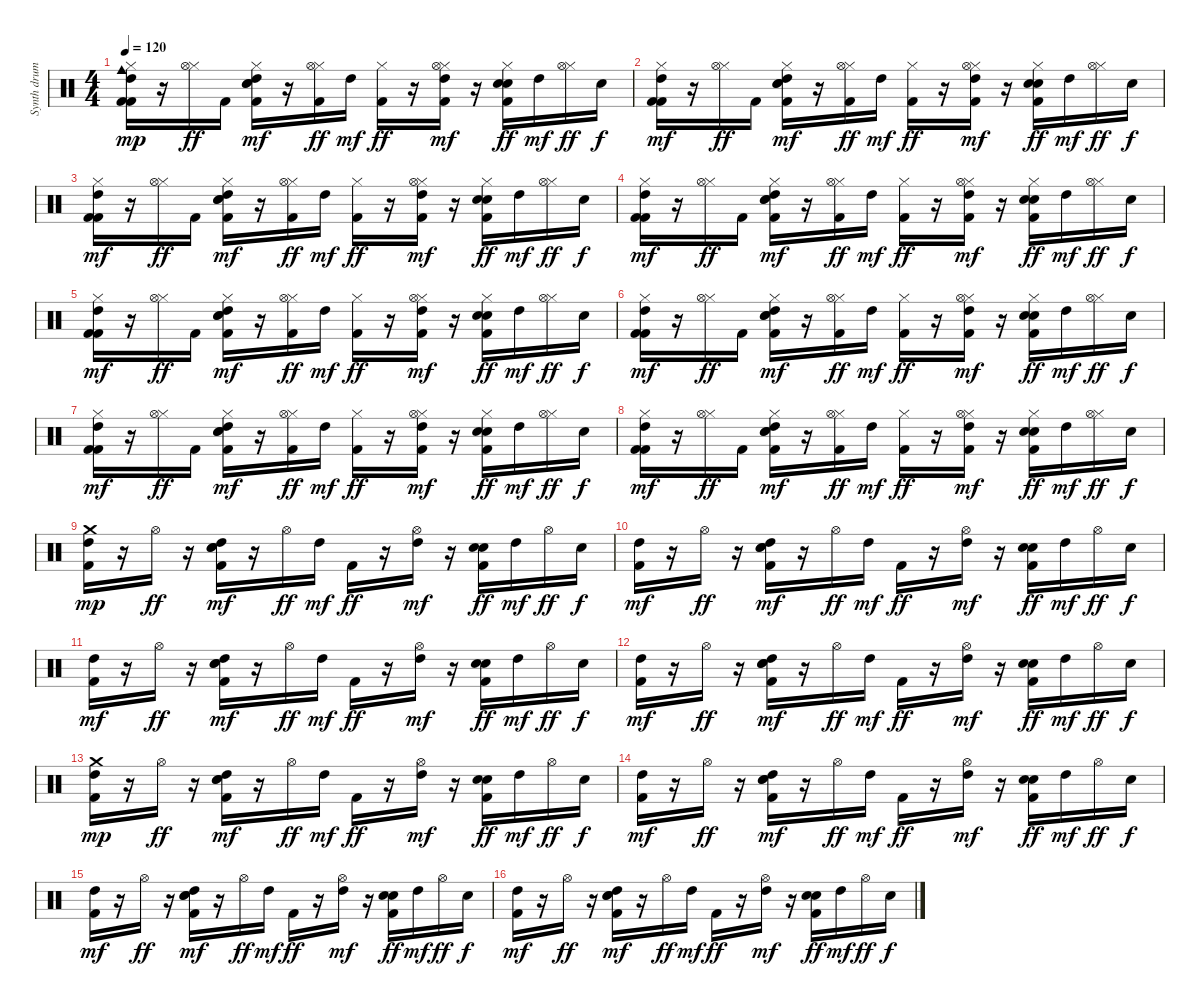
\track ("Synth drums" "Synth drum") {instrument percussion}
\staff {score}
\articulation defaults
\ts (4 4)
\tempo 120
\clef neutral
\ks c
("Kick (hit) 2" "Hi-Hat (closed)" "Kick (hit) 2" "High Tom (hit)" "Cowbell medium (hit)").16{dy mp} r.16 ("Hi-Hat (closed)" "Hi-Hat (open)").16{dy ff} "Kick (hit) 2".16 ("Snare (hit) 2" "Hi-Hat (closed)" "Kick (hit) 2" "Snare (hit) 2" "High Tom (hit)").16{dy mf} r.16 ("Kick (hit) 2" "Hi-Hat (closed)" "Hi-Hat (open)").16{dy ff} "High Tom (hit)".16{dy mf} ("Hi-Hat (closed)" "Kick (hit) 2").16{dy ff} r.16 ("Kick (hit) 2" "Hi-Hat (closed)" "Hi-Hat (open)" "High Tom (hit)").16{dy mf} r.16 ("Snare (hit) 2" "Hi-Hat (closed)" "Kick (hit) 2" "Snare (hit) 2").16{dy ff} "High Tom (hit)".16{dy mf} ("Hi-Hat (closed)" "Hi-Hat (open)").16{dy ff} "Snare (hit) 2".16{dy f} |
("Kick (hit) 2" "Hi-Hat (closed)" "Kick (hit) 2" "High Tom (hit)").16{dy mf} r.16 ("Hi-Hat (closed)" "Hi-Hat (open)").16{dy ff} "Kick (hit) 2".16 ("Snare (hit) 2" "Hi-Hat (closed)" "Kick (hit) 2" "Snare (hit) 2" "High Tom (hit)").16{dy mf} r.16 ("Kick (hit) 2" "Hi-Hat (closed)" "Hi-Hat (open)").16{dy ff} "High Tom (hit)".16{dy mf} ("Hi-Hat (closed)" "Kick (hit) 2").16{dy ff} r.16 ("Kick (hit) 2" "Hi-Hat (closed)" "Hi-Hat (open)" "High Tom (hit)").16{dy mf} r.16 ("Snare (hit) 2" "Hi-Hat (closed)" "Kick (hit) 2" "Snare (hit) 2").16{dy ff} "High Tom (hit)".16{dy mf} ("Hi-Hat (closed)" "Hi-Hat (open)").16{dy ff} "Snare (hit) 2".16{dy f} |
("Kick (hit) 2" "Hi-Hat (closed)" "Kick (hit) 2" "High Tom (hit)").16{dy mf} r.16 ("Hi-Hat (closed)" "Hi-Hat (open)").16{dy ff} "Kick (hit) 2".16 ("Snare (hit) 2" "Hi-Hat (closed)" "Kick (hit) 2" "Snare (hit) 2" "High Tom (hit)").16{dy mf} r.16 ("Kick (hit) 2" "Hi-Hat (closed)" "Hi-Hat (open)").16{dy ff} "High Tom (hit)".16{dy mf} ("Hi-Hat (closed)" "Kick (hit) 2").16{dy ff} r.16 ("Kick (hit) 2" "Hi-Hat (closed)" "Hi-Hat (open)" "High Tom (hit)").16{dy mf} r.16 ("Snare (hit) 2" "Hi-Hat (closed)" "Kick (hit) 2" "Snare (hit) 2").16{dy ff} "High Tom (hit)".16{dy mf} ("Hi-Hat (closed)" "Hi-Hat (open)").16{dy ff} "Snare (hit) 2".16{dy f} |
("Kick (hit) 2" "Hi-Hat (closed)" "Kick (hit) 2" "High Tom (hit)").16{dy mf} r.16 ("Hi-Hat (closed)" "Hi-Hat (open)").16{dy ff} "Kick (hit) 2".16 ("Snare (hit) 2" "Hi-Hat (closed)" "Kick (hit) 2" "Snare (hit) 2" "High Tom (hit)").16{dy mf} r.16 ("Kick (hit) 2" "Hi-Hat (closed)" "Hi-Hat (open)").16{dy ff} "High Tom (hit)".16{dy mf} ("Hi-Hat (closed)" "Kick (hit) 2").16{dy ff} r.16 ("Kick (hit) 2" "Hi-Hat (closed)" "Hi-Hat (open)" "High Tom (hit)").16{dy mf} r.16 ("Snare (hit) 2" "Hi-Hat (closed)" "Kick (hit) 2" "Snare (hit) 2").16{dy ff} "High Tom (hit)".16{dy mf} ("Hi-Hat (closed)" "Hi-Hat (open)").16{dy ff} "Snare (hit) 2".16{dy f} |
("Kick (hit) 2" "Hi-Hat (closed)" "Kick (hit) 2" "High Tom (hit)").16{dy mf} r.16 ("Hi-Hat (closed)" "Hi-Hat (open)").16{dy ff} "Kick (hit) 2".16 ("Snare (hit) 2" "Hi-Hat (closed)" "Kick (hit) 2" "Snare (hit) 2" "High Tom (hit)").16{dy mf} r.16 ("Kick (hit) 2" "Hi-Hat (closed)" "Hi-Hat (open)").16{dy ff} "High Tom (hit)".16{dy mf} ("Hi-Hat (closed)" "Kick (hit) 2").16{dy ff} r.16 ("Kick (hit) 2" "Hi-Hat (closed)" "Hi-Hat (open)" "High Tom (hit)").16{dy mf} r.16 ("Snare (hit) 2" "Hi-Hat (closed)" "Kick (hit) 2" "Snare (hit) 2").16{dy ff} "High Tom (hit)".16{dy mf} ("Hi-Hat (closed)" "Hi-Hat (open)").16{dy ff} "Snare (hit) 2".16{dy f} |
("Kick (hit) 2" "Hi-Hat (closed)" "Kick (hit) 2" "High Tom (hit)").16{dy mf} r.16 ("Hi-Hat (closed)" "Hi-Hat (open)").16{dy ff} "Kick (hit) 2".16 ("Snare (hit) 2" "Hi-Hat (closed)" "Kick (hit) 2" "Snare (hit) 2" "High Tom (hit)").16{dy mf} r.16 ("Kick (hit) 2" "Hi-Hat (closed)" "Hi-Hat (open)").16{dy ff} "High Tom (hit)".16{dy mf} ("Hi-Hat (closed)" "Kick (hit) 2").16{dy ff} r.16 ("Kick (hit) 2" "Hi-Hat (closed)" "Hi-Hat (open)" "High Tom (hit)").16{dy mf} r.16 ("Snare (hit) 2" "Hi-Hat (closed)" "Kick (hit) 2" "Snare (hit) 2").16{dy ff} "High Tom (hit)".16{dy mf} ("Hi-Hat (closed)" "Hi-Hat (open)").16{dy ff} "Snare (hit) 2".16{dy f} |
("Kick (hit) 2" "Hi-Hat (closed)" "Kick (hit) 2" "High Tom (hit)").16{dy mf} r.16 ("Hi-Hat (closed)" "Hi-Hat (open)").16{dy ff} "Kick (hit) 2".16 ("Snare (hit) 2" "Hi-Hat (closed)" "Kick (hit) 2" "Snare (hit) 2" "High Tom (hit)").16{dy mf} r.16 ("Kick (hit) 2" "Hi-Hat (closed)" "Hi-Hat (open)").16{dy ff} "High Tom (hit)".16{dy mf} ("Hi-Hat (closed)" "Kick (hit) 2").16{dy ff} r.16 ("Kick (hit) 2" "Hi-Hat (closed)" "Hi-Hat (open)" "High Tom (hit)").16{dy mf} r.16 ("Snare (hit) 2" "Hi-Hat (closed)" "Kick (hit) 2" "Snare (hit) 2").16{dy ff} "High Tom (hit)".16{dy mf} ("Hi-Hat (closed)" "Hi-Hat (open)").16{dy ff} "Snare (hit) 2".16{dy f} |
("Kick (hit) 2" "Hi-Hat (closed)" "Kick (hit) 2" "High Tom (hit)").16{dy mf} r.16 ("Hi-Hat (closed)" "Hi-Hat (open)").16{dy ff} "Kick (hit) 2".16 ("Snare (hit) 2" "Hi-Hat (closed)" "Kick (hit) 2" "Snare (hit) 2" "High Tom (hit)").16{dy mf} r.16 ("Kick (hit) 2" "Hi-Hat (closed)" "Hi-Hat (open)").16{dy ff} "High Tom (hit)".16{dy mf} ("Hi-Hat (closed)" "Kick (hit) 2").16{dy ff} r.16 ("Kick (hit) 2" "Hi-Hat (closed)" "Hi-Hat (open)" "High Tom (hit)").16{dy mf} r.16 ("Snare (hit) 2" "Hi-Hat (closed)" "Kick (hit) 2" "Snare (hit) 2").16{dy ff} "High Tom (hit)".16{dy mf} ("Hi-Hat (closed)" "Hi-Hat (open)").16{dy ff} "Snare (hit) 2".16{dy f} |
("Kick (hit) 2" "High Tom (hit)" "Crash medium (hit)").16{dy mp} r.16 "Hi-Hat (open)".16{dy ff} r.16 ("Snare (hit) 2" "Kick (hit) 2" "Snare (hit) 2" "High Tom (hit)").16{dy mf} r.16 "Hi-Hat (open)".16{dy ff} "High Tom (hit)".16{dy mf} "Kick (hit) 2".16{dy ff} r.16 ("Hi-Hat (open)" "High Tom (hit)").16{dy mf} r.16 ("Snare (hit) 2" "Kick (hit) 2" "Snare (hit) 2").16{dy ff} "High Tom (hit)".16{dy mf} "Hi-Hat (open)".16{dy ff} "Snare (hit) 2".16{dy f} |
("Kick (hit) 2" "High Tom (hit)").16{dy mf} r.16 "Hi-Hat (open)".16{dy ff} r.16 ("Snare (hit) 2" "Kick (hit) 2" "Snare (hit) 2" "High Tom (hit)").16{dy mf} r.16 "Hi-Hat (open)".16{dy ff} "High Tom (hit)".16{dy mf} "Kick (hit) 2".16{dy ff} r.16 ("Hi-Hat (open)" "High Tom (hit)").16{dy mf} r.16 ("Snare (hit) 2" "Kick (hit) 2" "Snare (hit) 2").16{dy ff} "High Tom (hit)".16{dy mf} "Hi-Hat (open)".16{dy ff} "Snare (hit) 2".16{dy f} |
("Kick (hit) 2" "High Tom (hit)").16{dy mf} r.16 "Hi-Hat (open)".16{dy ff} r.16 ("Snare (hit) 2" "Kick (hit) 2" "Snare (hit) 2" "High Tom (hit)").16{dy mf} r.16 "Hi-Hat (open)".16{dy ff} "High Tom (hit)".16{dy mf} "Kick (hit) 2".16{dy ff} r.16 ("Hi-Hat (open)" "High Tom (hit)").16{dy mf} r.16 ("Snare (hit) 2" "Kick (hit) 2" "Snare (hit) 2").16{dy ff} "High Tom (hit)".16{dy mf} "Hi-Hat (open)".16{dy ff} "Snare (hit) 2".16{dy f} |
("Kick (hit) 2" "High Tom (hit)").16{dy mf} r.16 "Hi-Hat (open)".16{dy ff} r.16 ("Snare (hit) 2" "Kick (hit) 2" "Snare (hit) 2" "High Tom (hit)").16{dy mf} r.16 "Hi-Hat (open)".16{dy ff} "High Tom (hit)".16{dy mf} "Kick (hit) 2".16{dy ff} r.16 ("Hi-Hat (open)" "High Tom (hit)").16{dy mf} r.16 ("Snare (hit) 2" "Kick (hit) 2" "Snare (hit) 2").16{dy ff} "High Tom (hit)".16{dy mf} "Hi-Hat (open)".16{dy ff} "Snare (hit) 2".16{dy f} |
("Kick (hit) 2" "High Tom (hit)" "Crash medium (hit)").16{dy mp} r.16 "Hi-Hat (open)".16{dy ff} r.16 ("Snare (hit) 2" "Kick (hit) 2" "Snare (hit) 2" "High Tom (hit)").16{dy mf} r.16 "Hi-Hat (open)".16{dy ff} "High Tom (hit)".16{dy mf} "Kick (hit) 2".16{dy ff} r.16 ("Hi-Hat (open)" "High Tom (hit)").16{dy mf} r.16 ("Snare (hit) 2" "Kick (hit) 2" "Snare (hit) 2").16{dy ff} "High Tom (hit)".16{dy mf} "Hi-Hat (open)".16{dy ff} "Snare (hit) 2".16{dy f} |
("Kick (hit) 2" "High Tom (hit)").16{dy mf} r.16 "Hi-Hat (open)".16{dy ff} r.16 ("Snare (hit) 2" "Kick (hit) 2" "Snare (hit) 2" "High Tom (hit)").16{dy mf} r.16 "Hi-Hat (open)".16{dy ff} "High Tom (hit)".16{dy mf} "Kick (hit) 2".16{dy ff} r.16 ("Hi-Hat (open)" "High Tom (hit)").16{dy mf} r.16 ("Snare (hit) 2" "Kick (hit) 2" "Snare (hit) 2").16{dy ff} "High Tom (hit)".16{dy mf} "Hi-Hat (open)".16{dy ff} "Snare (hit) 2".16{dy f} |
("Kick (hit) 2" "High Tom (hit)").16{dy mf} r.16 "Hi-Hat (open)".16{dy ff} r.16 ("Snare (hit) 2" "Kick (hit) 2" "Snare (hit) 2" "High Tom (hit)").16{dy mf} r.16 "Hi-Hat (open)".16{dy ff} "High Tom (hit)".16{dy mf} "Kick (hit) 2".16{dy ff} r.16 ("Hi-Hat (open)" "High Tom (hit)").16{dy mf} r.16 ("Snare (hit) 2" "Kick (hit) 2" "Snare (hit) 2").16{dy ff} "High Tom (hit)".16{dy mf} "Hi-Hat (open)".16{dy ff} "Snare (hit) 2".16{dy f} |
("Kick (hit) 2" "High Tom (hit)").16{dy mf} r.16 "Hi-Hat (open)".16{dy ff} r.16 ("Snare (hit) 2" "Kick (hit) 2" "Snare (hit) 2" "High Tom (hit)").16{dy mf} r.16 "Hi-Hat (open)".16{dy ff} "High Tom (hit)".16{dy mf} "Kick (hit) 2".16{dy ff} r.16 ("Hi-Hat (open)" "High Tom (hit)").16{dy mf} r.16 ("Snare (hit) 2" "Kick (hit) 2" "Snare (hit) 2").16{dy ff} "High Tom (hit)".16{dy mf} "Hi-Hat (open)".16{dy ff} "Snare (hit) 2".16{dy f}
